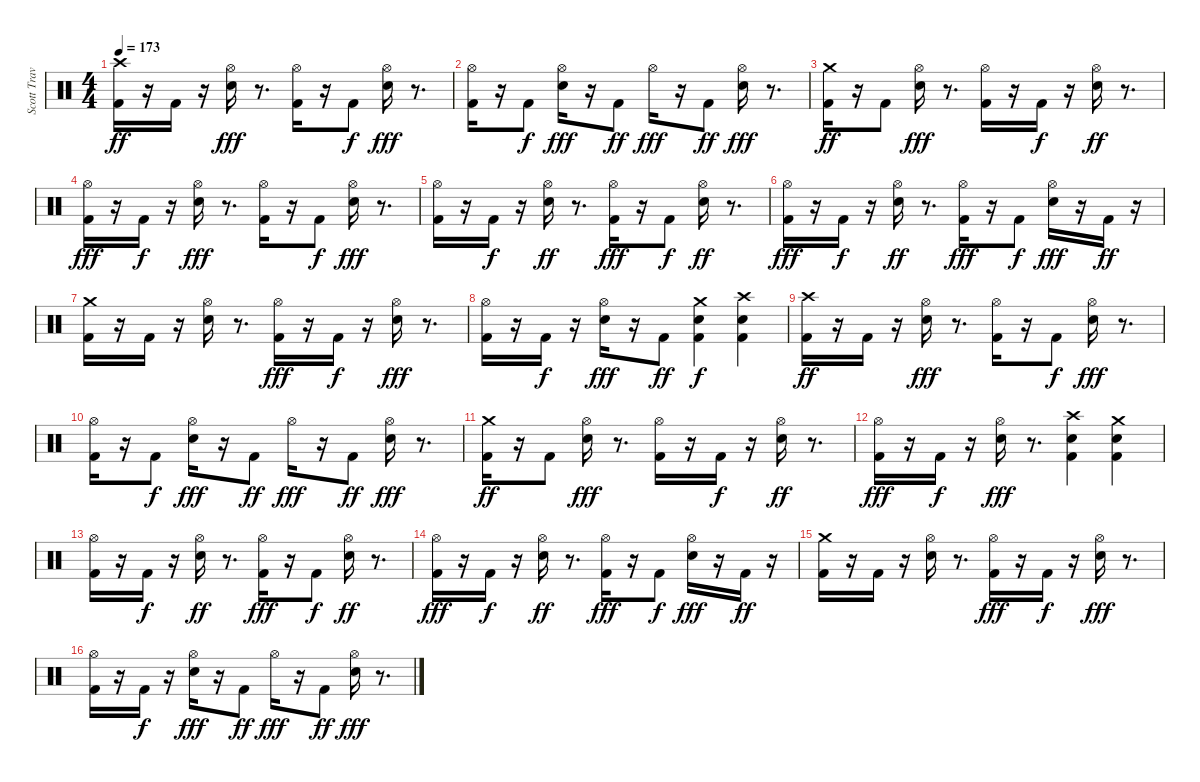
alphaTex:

\track ("Scott Travis" "Scott Trav") {instrument percussion}
\staff {score}
\articulation defaults
\ts (4 4)
\tempo 173
\clef neutral
\ks c
("Crash high (hit)" "Kick (hit) 2").16{dy ff} r.16 "Kick (hit) 2".16 r.16 ("Hi-Hat (open)" "Snare (hit) 2").16{dy fff} r.8{d} ("Kick (hit) 2" "Hi-Hat (open)").16 r.16 "Kick (hit) 2".8{dy f} ("Snare (hit) 2" "Hi-Hat (open)").16{dy fff} r.8{d} |
("Kick (hit) 2" "Hi-Hat (open)").16 r.16 "Kick (hit) 2".8{dy f} ("Snare (hit) 2" "Hi-Hat (open)").16{dy fff} r.16 "Kick (hit) 2".8{dy ff} "Hi-Hat (open)".16{dy fff} r.16 "Kick (hit) 2".8{dy ff} ("Snare (hit) 2" "Hi-Hat (open)").16{dy fff} r.8{d} |
("Kick (hit) 2" "Crash medium (hit)").16{dy ff} r.16 "Kick (hit) 2".8 ("Hi-Hat (open)" "Snare (hit) 2").16{dy fff} r.8{d} ("Kick (hit) 2" "Hi-Hat (open)").16 r.16 "Kick (hit) 2".16{dy f} r.16 ("Hi-Hat (open)" "Snare (hit) 2").16{dy ff} r.8{d} |
("Hi-Hat (open)" "Kick (hit) 2").16{dy fff} r.16 "Kick (hit) 2".16{dy f} r.16 ("Snare (hit) 2" "Hi-Hat (open)").16{dy fff} r.8{d} ("Kick (hit) 2" "Hi-Hat (open)").16 r.16 "Kick (hit) 2".8{dy f} ("Snare (hit) 2" "Hi-Hat (open)").16{dy fff} r.8{d} |
("Kick (hit) 2" "Hi-Hat (open)").16 r.16 "Kick (hit) 2".16{dy f} r.16 ("Hi-Hat (open)" "Snare (hit) 2").16{dy ff} r.8{d} ("Kick (hit) 2" "Hi-Hat (open)").16{dy fff} r.16 "Kick (hit) 2".8{dy f} ("Hi-Hat (open)" "Snare (hit) 2").16{dy ff} r.8{d} |
("Kick (hit) 2" "Hi-Hat (open)").16{dy fff} r.16 "Kick (hit) 2".16{dy f} r.16 ("Hi-Hat (open)" "Snare (hit) 2").16{dy ff} r.8{d} ("Kick (hit) 2" "Hi-Hat (open)").16{dy fff} r.16 "Kick (hit) 2".8{dy f} ("Snare (hit) 2" "Hi-Hat (open)").16{dy fff} r.16 "Kick (hit) 2".16{dy ff} r.16 |
("Crash medium (hit)" "Kick (hit) 2").16 r.16 "Kick (hit) 2".16 r.16 ("Snare (hit) 2" "Hi-Hat (open)").16 r.8{d} ("Kick (hit) 2" "Hi-Hat (open)").16{dy fff} r.16 "Kick (hit) 2".16{dy f} r.16 ("Snare (hit) 2" "Hi-Hat (open)").16{dy fff} r.8{d} |
("Kick (hit) 2" "Hi-Hat (open)").16 r.16 "Kick (hit) 2".16{dy f} r.16 ("Snare (hit) 2" "Hi-Hat (open)").16{dy fff} r.16 "Kick (hit) 2".8{dy ff} ("Snare (hit) 2" "Crash medium (hit)" "Kick (hit) 2").4{dy f} ("Snare (hit) 2" "Crash high (hit)" "Kick (hit) 2").4 |
("Crash high (hit)" "Kick (hit) 2").16{dy ff} r.16 "Kick (hit) 2".16 r.16 ("Hi-Hat (open)" "Snare (hit) 2").16{dy fff} r.8{d} ("Kick (hit) 2" "Hi-Hat (open)").16 r.16 "Kick (hit) 2".8{dy f} ("Snare (hit) 2" "Hi-Hat (open)").16{dy fff} r.8{d} |
("Kick (hit) 2" "Hi-Hat (open)").16 r.16 "Kick (hit) 2".8{dy f} ("Snare (hit) 2" "Hi-Hat (open)").16{dy fff} r.16 "Kick (hit) 2".8{dy ff} "Hi-Hat (open)".16{dy fff} r.16 "Kick (hit) 2".8{dy ff} ("Snare (hit) 2" "Hi-Hat (open)").16{dy fff} r.8{d} |
("Kick (hit) 2" "Crash medium (hit)").16{dy ff} r.16 "Kick (hit) 2".8 ("Hi-Hat (open)" "Snare (hit) 2").16{dy fff} r.8{d} ("Kick (hit) 2" "Hi-Hat (open)").16 r.16 "Kick (hit) 2".16{dy f} r.16 ("Hi-Hat (open)" "Snare (hit) 2").16{dy ff} r.8{d} |
("Hi-Hat (open)" "Kick (hit) 2").16{dy fff} r.16 "Kick (hit) 2".16{dy f} r.16 ("Snare (hit) 2" "Hi-Hat (open)").16{dy fff} r.8{d} ("Snare (hit) 2" "Kick (hit) 2" "Crash high (hit)").4 ("Snare (hit) 2" "Kick (hit) 2" "Crash medium (hit)").4 |
("Kick (hit) 2" "Hi-Hat (open)").16 r.16 "Kick (hit) 2".16{dy f} r.16 ("Hi-Hat (open)" "Snare (hit) 2").16{dy ff} r.8{d} ("Kick (hit) 2" "Hi-Hat (open)").16{dy fff} r.16 "Kick (hit) 2".8{dy f} ("Hi-Hat (open)" "Snare (hit) 2").16{dy ff} r.8{d} |
("Kick (hit) 2" "Hi-Hat (open)").16{dy fff} r.16 "Kick (hit) 2".16{dy f} r.16 ("Hi-Hat (open)" "Snare (hit) 2").16{dy ff} r.8{d} ("Kick (hit) 2" "Hi-Hat (open)").16{dy fff} r.16 "Kick (hit) 2".8{dy f} ("Snare (hit) 2" "Hi-Hat (open)").16{dy fff} r.16 "Kick (hit) 2".16{dy ff} r.16 |
("Crash medium (hit)" "Kick (hit) 2").16 r.16 "Kick (hit) 2".16 r.16 ("Snare (hit) 2" "Hi-Hat (open)").16 r.8{d} ("Kick (hit) 2" "Hi-Hat (open)").16{dy fff} r.16 "Kick (hit) 2".16{dy f} r.16 ("Snare (hit) 2" "Hi-Hat (open)").16{dy fff} r.8{d} |
("Kick (hit) 2" "Hi-Hat (open)").16 r.16 "Kick (hit) 2".16{dy f} r.16 ("Snare (hit) 2" "Hi-Hat (open)").16{dy fff} r.16 "Kick (hit) 2".8{dy ff} "Hi-Hat (open)".16{dy fff} r.16 "Kick (hit) 2".8{dy ff} ("Snare (hit) 2" "Hi-Hat (open)").16{dy fff} r.8{d}
